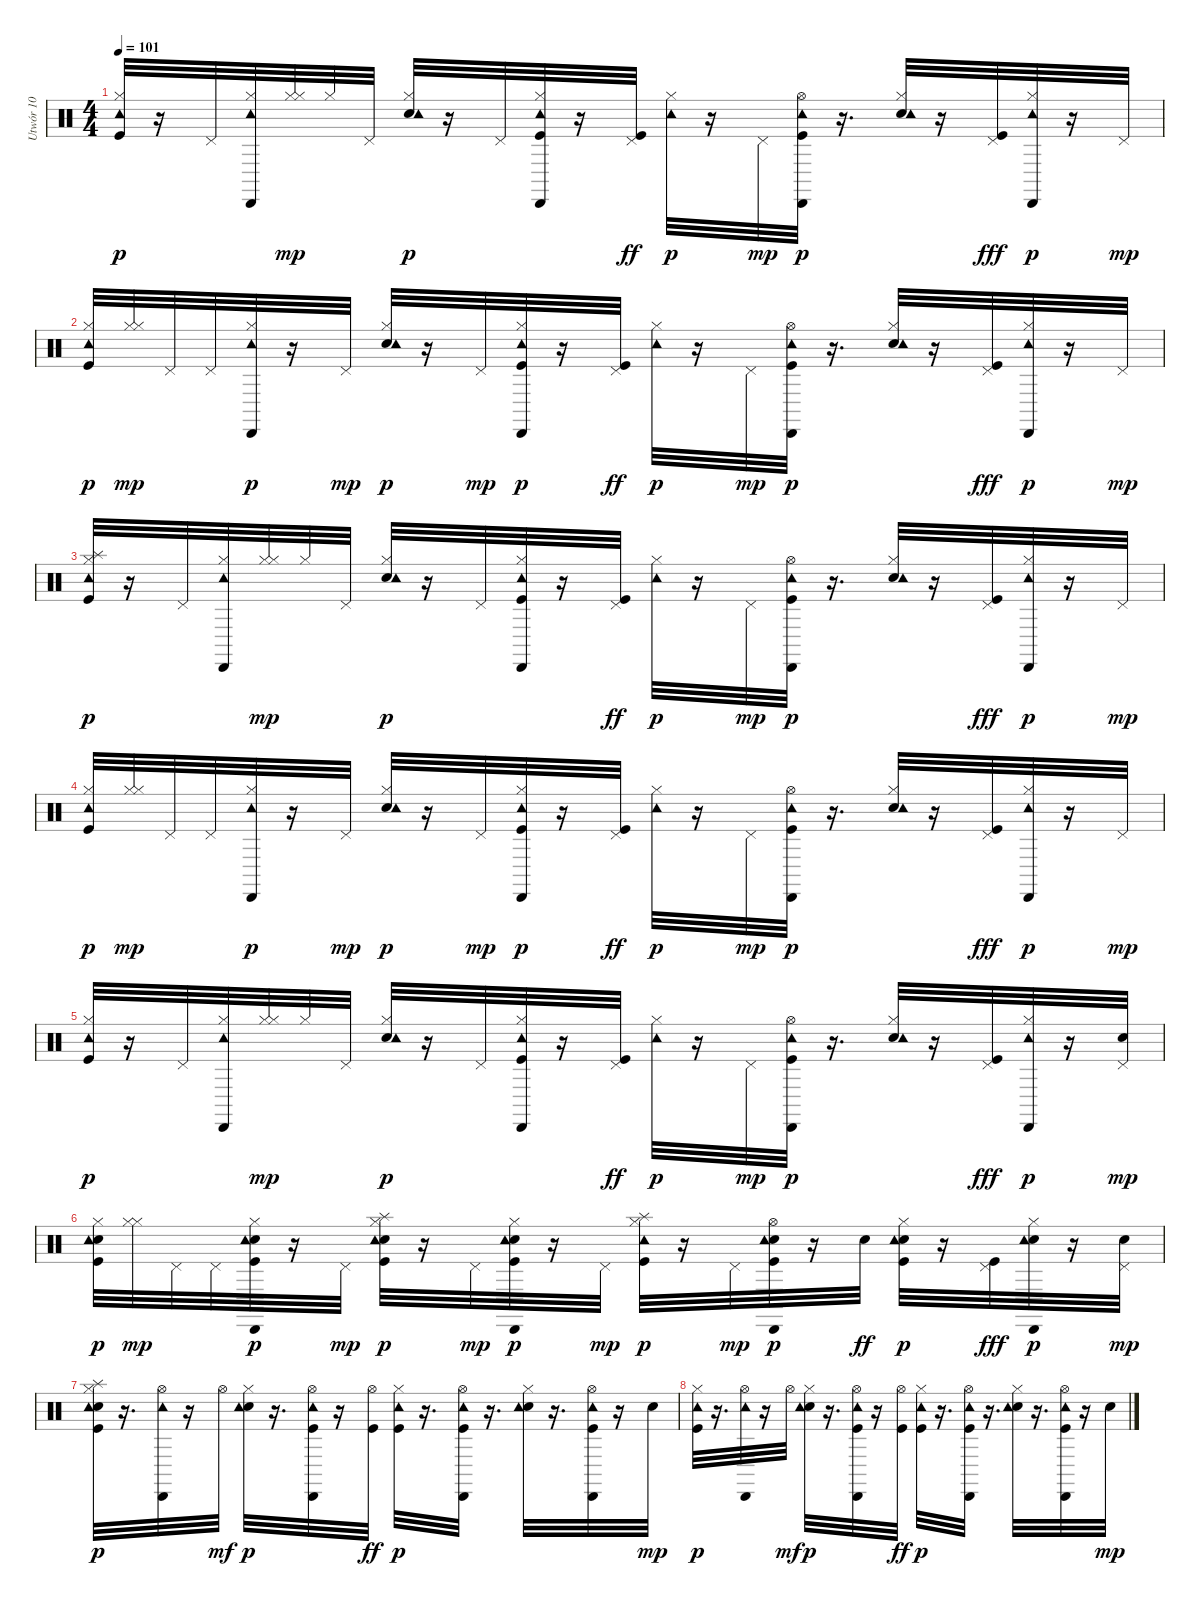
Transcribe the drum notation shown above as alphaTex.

\track ("Utwór 10" "Utwór 10") {instrument percussion}
\staff {score}
\articulation defaults
\ts (4 4)
\tempo 101
\clef neutral
\ks c
("Hi-Hat (closed)" "Kick (hit)" "Tambourine (hit)").32{dy p} r.16 "Pedal Hi-Hat (hit)".32 ("Cabasa (hit)" "Hi-Hat (closed)" "Tambourine (hit)").32 ("Hi-Hat (closed)" "Hi-Hat (closed)").32{dy mp} "Hi-Hat (closed)".32 "Pedal Hi-Hat (hit)".32 ("Electric Snare (hit)" "Hi-Hat (closed)" "Tambourine (hit)").32{dy p} r.16 "Pedal Hi-Hat (hit)".32 ("Cabasa (hit)" "Hi-Hat (closed)" "Kick (hit)" "Tambourine (hit)").32 r.16 ("Pedal Hi-Hat (hit)" "Kick (hit)").32{dy ff} ("Hi-Hat (closed)" "Tambourine (hit)").32{dy p} r.16 "Pedal Hi-Hat (hit)".32{dy mp} ("Cabasa (hit)" "Hi-Hat (open)" "Kick (hit)" "Tambourine (hit)").32{dy p} r.16{d} ("Electric Snare (hit)" "Hi-Hat (closed)" "Tambourine (hit)").32 r.16 ("Pedal Hi-Hat (hit)" "Kick (hit)").32{dy fff} ("Cabasa (hit)" "Hi-Hat (closed)" "Tambourine (hit)").32{dy p} r.16 "Pedal Hi-Hat (hit)".32{dy mp} |
("Hi-Hat (closed)" "Kick (hit)" "Tambourine (hit)").32{dy p} ("Hi-Hat (closed)" "Hi-Hat (closed)").32{dy mp} "Pedal Hi-Hat (hit)".32 "Pedal Hi-Hat (hit)".32 ("Cabasa (hit)" "Hi-Hat (closed)" "Tambourine (hit)").32{dy p} r.16 "Pedal Hi-Hat (hit)".32{dy mp} ("Electric Snare (hit)" "Hi-Hat (closed)" "Tambourine (hit)").32{dy p} r.16 "Pedal Hi-Hat (hit)".32{dy mp} ("Cabasa (hit)" "Hi-Hat (closed)" "Kick (hit)" "Tambourine (hit)").32{dy p} r.16 ("Pedal Hi-Hat (hit)" "Kick (hit)").32{dy ff} ("Hi-Hat (closed)" "Tambourine (hit)").32{dy p} r.16 "Pedal Hi-Hat (hit)".32{dy mp} ("Cabasa (hit)" "Hi-Hat (open)" "Kick (hit)" "Tambourine (hit)").32{dy p} r.16{d} ("Electric Snare (hit)" "Hi-Hat (closed)" "Tambourine (hit)").32 r.16 ("Pedal Hi-Hat (hit)" "Kick (hit)").32{dy fff} ("Cabasa (hit)" "Hi-Hat (closed)" "Tambourine (hit)").32{dy p} r.16 "Pedal Hi-Hat (hit)".32{dy mp} |
("Splash (hit)" "Hi-Hat (closed)" "Kick (hit)" "Tambourine (hit)").32{dy p} r.16 "Pedal Hi-Hat (hit)".32 ("Cabasa (hit)" "Hi-Hat (closed)" "Tambourine (hit)").32 ("Hi-Hat (closed)" "Hi-Hat (closed)").32{dy mp} "Hi-Hat (closed)".32 "Pedal Hi-Hat (hit)".32 ("Electric Snare (hit)" "Hi-Hat (closed)" "Tambourine (hit)").32{dy p} r.16 "Pedal Hi-Hat (hit)".32 ("Cabasa (hit)" "Hi-Hat (closed)" "Kick (hit)" "Tambourine (hit)").32 r.16 ("Pedal Hi-Hat (hit)" "Kick (hit)").32{dy ff} ("Hi-Hat (closed)" "Tambourine (hit)").32{dy p} r.16 "Pedal Hi-Hat (hit)".32{dy mp} ("Cabasa (hit)" "Hi-Hat (open)" "Kick (hit)" "Tambourine (hit)").32{dy p} r.16{d} ("Electric Snare (hit)" "Hi-Hat (closed)" "Tambourine (hit)").32 r.16 ("Pedal Hi-Hat (hit)" "Kick (hit)").32{dy fff} ("Cabasa (hit)" "Hi-Hat (closed)" "Tambourine (hit)").32{dy p} r.16 "Pedal Hi-Hat (hit)".32{dy mp} |
("Hi-Hat (closed)" "Kick (hit)" "Tambourine (hit)").32{dy p} ("Hi-Hat (closed)" "Hi-Hat (closed)").32{dy mp} "Pedal Hi-Hat (hit)".32 "Pedal Hi-Hat (hit)".32 ("Cabasa (hit)" "Hi-Hat (closed)" "Tambourine (hit)").32{dy p} r.16 "Pedal Hi-Hat (hit)".32{dy mp} ("Electric Snare (hit)" "Hi-Hat (closed)" "Tambourine (hit)").32{dy p} r.16 "Pedal Hi-Hat (hit)".32{dy mp} ("Cabasa (hit)" "Hi-Hat (closed)" "Kick (hit)" "Tambourine (hit)").32{dy p} r.16 ("Pedal Hi-Hat (hit)" "Kick (hit)").32{dy ff} ("Hi-Hat (closed)" "Tambourine (hit)").32{dy p} r.16 "Pedal Hi-Hat (hit)".32{dy mp} ("Cabasa (hit)" "Hi-Hat (open)" "Kick (hit)" "Tambourine (hit)").32{dy p} r.16{d} ("Electric Snare (hit)" "Hi-Hat (closed)" "Tambourine (hit)").32 r.16 ("Pedal Hi-Hat (hit)" "Kick (hit)").32{dy fff} ("Cabasa (hit)" "Hi-Hat (closed)" "Tambourine (hit)").32{dy p} r.16 "Pedal Hi-Hat (hit)".32{dy mp} |
("Hi-Hat (closed)" "Kick (hit)" "Tambourine (hit)").32{dy p} r.16 "Pedal Hi-Hat (hit)".32 ("Cabasa (hit)" "Hi-Hat (closed)" "Tambourine (hit)").32 ("Hi-Hat (closed)" "Hi-Hat (closed)").32{dy mp} "Hi-Hat (closed)".32 "Pedal Hi-Hat (hit)".32 ("Electric Snare (hit)" "Hi-Hat (closed)" "Tambourine (hit)").32{dy p} r.16 "Pedal Hi-Hat (hit)".32 ("Cabasa (hit)" "Hi-Hat (closed)" "Kick (hit)" "Tambourine (hit)").32 r.16 ("Pedal Hi-Hat (hit)" "Kick (hit)").32{dy ff} ("Hi-Hat (closed)" "Tambourine (hit)").32{dy p} r.16 "Pedal Hi-Hat (hit)".32{dy mp} ("Cabasa (hit)" "Hi-Hat (open)" "Kick (hit)" "Tambourine (hit)").32{dy p} r.16{d} ("Electric Snare (hit)" "Hi-Hat (closed)" "Tambourine (hit)").32 r.16 ("Pedal Hi-Hat (hit)" "Kick (hit)").32{dy fff} ("Cabasa (hit)" "Hi-Hat (closed)" "Tambourine (hit)").32{dy p} r.16 ("Electric Snare (hit)" "Pedal Hi-Hat (hit)").32{dy mp} |
("Electric Snare (hit)" "Hi-Hat (closed)" "Kick (hit)" "Tambourine (hit)").32{dy p} ("Hi-Hat (closed)" "Hi-Hat (closed)").32{dy mp} "Pedal Hi-Hat (hit)".32 "Pedal Hi-Hat (hit)".32 ("Cabasa (hit)" "Electric Snare (hit)" "Hi-Hat (closed)" "Kick (hit)" "Tambourine (hit)").32{dy p} r.16 "Pedal Hi-Hat (hit)".32{dy mp} ("Splash (hit)" "Electric Snare (hit)" "Hi-Hat (closed)" "Kick (hit)" "Tambourine (hit)").32{dy p} r.16 "Pedal Hi-Hat (hit)".32{dy mp} ("Cabasa (hit)" "Electric Snare (hit)" "Hi-Hat (closed)" "Kick (hit)" "Tambourine (hit)").32{dy p} r.16 "Pedal Hi-Hat (hit)".32{dy mp} ("Splash (hit)" "Hi-Hat (closed)" "Kick (hit)" "Tambourine (hit)").32{dy p} r.16 "Pedal Hi-Hat (hit)".32{dy mp} ("Cabasa (hit)" "Electric Snare (hit)" "Hi-Hat (open)" "Kick (hit)" "Tambourine (hit)").32{dy p} r.16 "Electric Snare (hit)".32{dy ff} ("Electric Snare (hit)" "Hi-Hat (closed)" "Kick (hit)" "Tambourine (hit)").32{dy p} r.16 ("Pedal Hi-Hat (hit)" "Kick (hit)").32{dy fff} ("Cabasa (hit)" "Electric Snare (hit)" "Hi-Hat (closed)" "Tambourine (hit)").32{dy p} r.16 ("Electric Snare (hit)" "Pedal Hi-Hat (hit)").32{dy mp} |
("Splash (hit)" "Electric Snare (hit)" "Hi-Hat (closed)" "Kick (hit)" "Tambourine (hit)").32{dy p} r.16{d} ("Cabasa (hit)" "Hi-Hat (open)" "Tambourine (hit)").32 r.16 "Hi-Hat (open)".32{dy mf} ("Electric Snare (hit)" "Hi-Hat (closed)" "Tambourine (hit)").32{dy p} r.16{d} ("Cabasa (hit)" "Hi-Hat (open)" "Kick (hit)" "Tambourine (hit)").32 r.16 ("Hi-Hat (open)" "Kick (hit)").32{dy ff} ("Hi-Hat (closed)" "Kick (hit)" "Tambourine (hit)").32{dy p} r.16{d} ("Cabasa (hit)" "Hi-Hat (open)" "Kick (hit)" "Tambourine (hit)").32 r.16{d} ("Electric Snare (hit)" "Hi-Hat (closed)" "Tambourine (hit)").32 r.16{d} ("Cabasa (hit)" "Hi-Hat (open)" "Kick (hit)" "Tambourine (hit)").32 r.16 "Electric Snare (hit)".32{dy mp} |
("Hi-Hat (closed)" "Kick (hit)" "Tambourine (hit)").32{dy p} r.16{d} ("Cabasa (hit)" "Hi-Hat (open)" "Tambourine (hit)").32 r.16 "Hi-Hat (open)".32{dy mf} ("Electric Snare (hit)" "Hi-Hat (closed)" "Tambourine (hit)").32{dy p} r.16{d} ("Cabasa (hit)" "Hi-Hat (open)" "Kick (hit)" "Tambourine (hit)").32 r.16 ("Hi-Hat (open)" "Kick (hit)").32{dy ff} ("Hi-Hat (closed)" "Kick (hit)" "Tambourine (hit)").32{dy p} r.16{d} ("Cabasa (hit)" "Hi-Hat (open)" "Kick (hit)" "Tambourine (hit)").32 r.16{d} ("Electric Snare (hit)" "Hi-Hat (closed)" "Tambourine (hit)").32 r.16{d} ("Cabasa (hit)" "Hi-Hat (open)" "Kick (hit)" "Tambourine (hit)").32 r.16 "Electric Snare (hit)".32{dy mp}
